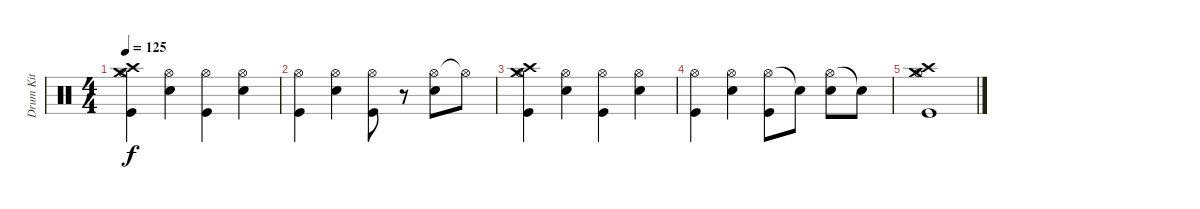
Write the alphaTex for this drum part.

\track ("Drum Kit" "Drum Kit") {instrument percussion}
\staff {score}
\articulation defaults
\ts (4 4)
\tempo 125
\clef neutral
\ks c
("Crash high (hit)" "Hi-Hat (open)" "Crash medium (hit)" "Kick (hit)").4{dy f} ("Hi-Hat (open)" "Electric Snare (hit)").4 ("Hi-Hat (open)" "Kick (hit)").4 ("Hi-Hat (open)" "Electric Snare (hit)").4 |
("Hi-Hat (open)" "Kick (hit)").4 ("Hi-Hat (open)" "Electric Snare (hit)").4 ("Hi-Hat (open)" "Kick (hit)").8 r.8 ("Hi-Hat (open)" "Electric Snare (hit)").8 "Hi-Hat (open)"{t}.8 |
("Crash high (hit)" "Hi-Hat (open)" "Crash medium (hit)" "Kick (hit)").4 ("Hi-Hat (open)" "Electric Snare (hit)").4 ("Hi-Hat (open)" "Kick (hit)").4 ("Hi-Hat (open)" "Electric Snare (hit)").4 |
("Hi-Hat (open)" "Kick (hit)").4 ("Hi-Hat (open)" "Electric Snare (hit)").4 ("Hi-Hat (open)" "Kick (hit)").8 "Snare (hit)"{t}.8 ("Hi-Hat (open)" "Electric Snare (hit)").8 "Snare (hit)"{t}.8 |
("Crash high (hit)" "Crash medium (hit)" "Hi-Hat (open)" "Kick (hit)").1
